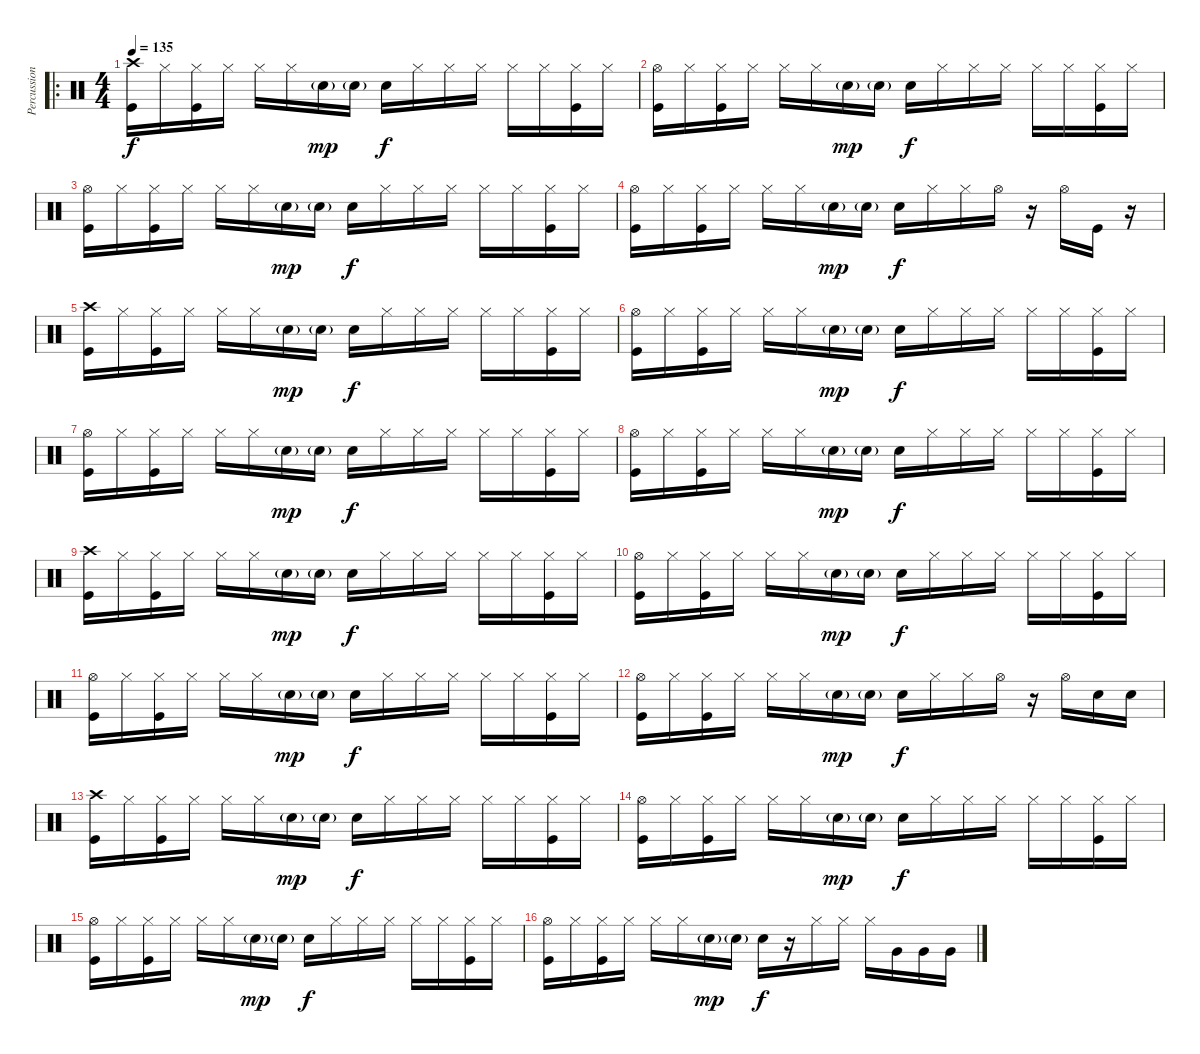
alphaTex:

\track ("Percussion" "Percussion") {instrument percussion}
\staff {score}
\articulation defaults
\ro
\ts (4 4)
\tempo 135
\clef neutral
\ks c
("Kick (hit)" "Crash high (hit)").16{dy f} "Hi-Hat (closed)".16 ("Kick (hit)" "Hi-Hat (closed)").16 "Hi-Hat (closed)".16 "Hi-Hat (closed)".16 "Hi-Hat (closed)".16 "Electric Snare (hit)"{g}.16{dy mp} "Electric Snare (hit)"{g}.16 "Electric Snare (hit)".16{dy f} "Hi-Hat (closed)".16 "Hi-Hat (closed)".16 "Hi-Hat (closed)".16 "Hi-Hat (closed)".16 "Hi-Hat (closed)".16 ("Kick (hit)" "Hi-Hat (closed)").16 "Hi-Hat (closed)".16 |
("Kick (hit)" "Hi-Hat (open)").16 "Hi-Hat (closed)".16 ("Kick (hit)" "Hi-Hat (closed)").16 "Hi-Hat (closed)".16 "Hi-Hat (closed)".16 "Hi-Hat (closed)".16 "Electric Snare (hit)"{g}.16{dy mp} "Electric Snare (hit)"{g}.16 "Electric Snare (hit)".16{dy f} "Hi-Hat (closed)".16 "Hi-Hat (closed)".16 "Hi-Hat (closed)".16 "Hi-Hat (closed)".16 "Hi-Hat (closed)".16 ("Kick (hit)" "Hi-Hat (closed)").16 "Hi-Hat (closed)".16 |
("Kick (hit)" "Hi-Hat (open)").16 "Hi-Hat (closed)".16 ("Kick (hit)" "Hi-Hat (closed)").16 "Hi-Hat (closed)".16 "Hi-Hat (closed)".16 "Hi-Hat (closed)".16 "Electric Snare (hit)"{g}.16{dy mp} "Electric Snare (hit)"{g}.16 "Electric Snare (hit)".16{dy f} "Hi-Hat (closed)".16 "Hi-Hat (closed)".16 "Hi-Hat (closed)".16 "Hi-Hat (closed)".16 "Hi-Hat (closed)".16 ("Kick (hit)" "Hi-Hat (closed)").16 "Hi-Hat (closed)".16 |
("Kick (hit)" "Hi-Hat (open)").16 "Hi-Hat (closed)".16 ("Kick (hit)" "Hi-Hat (closed)").16 "Hi-Hat (closed)".16 "Hi-Hat (closed)".16 "Hi-Hat (closed)".16 "Electric Snare (hit)"{g}.16{dy mp} "Electric Snare (hit)"{g}.16 "Electric Snare (hit)".16{dy f} "Hi-Hat (closed)".16 "Hi-Hat (closed)".16 "Hi-Hat (open)".16 r.16 "Hi-Hat (open)".16 "Kick (hit)".16 r.16 |
("Kick (hit)" "Crash high (hit)").16 "Hi-Hat (closed)".16 ("Kick (hit)" "Hi-Hat (closed)").16 "Hi-Hat (closed)".16 "Hi-Hat (closed)".16 "Hi-Hat (closed)".16 "Electric Snare (hit)"{g}.16{dy mp} "Electric Snare (hit)"{g}.16 "Electric Snare (hit)".16{dy f} "Hi-Hat (closed)".16 "Hi-Hat (closed)".16 "Hi-Hat (closed)".16 "Hi-Hat (closed)".16 "Hi-Hat (closed)".16 ("Kick (hit)" "Hi-Hat (closed)").16 "Hi-Hat (closed)".16 |
("Kick (hit)" "Hi-Hat (open)").16 "Hi-Hat (closed)".16 ("Kick (hit)" "Hi-Hat (closed)").16 "Hi-Hat (closed)".16 "Hi-Hat (closed)".16 "Hi-Hat (closed)".16 "Electric Snare (hit)"{g}.16{dy mp} "Electric Snare (hit)"{g}.16 "Electric Snare (hit)".16{dy f} "Hi-Hat (closed)".16 "Hi-Hat (closed)".16 "Hi-Hat (closed)".16 "Hi-Hat (closed)".16 "Hi-Hat (closed)".16 ("Kick (hit)" "Hi-Hat (closed)").16 "Hi-Hat (closed)".16 |
("Kick (hit)" "Hi-Hat (open)").16 "Hi-Hat (closed)".16 ("Kick (hit)" "Hi-Hat (closed)").16 "Hi-Hat (closed)".16 "Hi-Hat (closed)".16 "Hi-Hat (closed)".16 "Electric Snare (hit)"{g}.16{dy mp} "Electric Snare (hit)"{g}.16 "Electric Snare (hit)".16{dy f} "Hi-Hat (closed)".16 "Hi-Hat (closed)".16 "Hi-Hat (closed)".16 "Hi-Hat (closed)".16 "Hi-Hat (closed)".16 ("Kick (hit)" "Hi-Hat (closed)").16 "Hi-Hat (closed)".16 |
("Kick (hit)" "Hi-Hat (open)").16 "Hi-Hat (closed)".16 ("Kick (hit)" "Hi-Hat (closed)").16 "Hi-Hat (closed)".16 "Hi-Hat (closed)".16 "Hi-Hat (closed)".16 "Electric Snare (hit)"{g}.16{dy mp} "Electric Snare (hit)"{g}.16 "Electric Snare (hit)".16{dy f} "Hi-Hat (closed)".16 "Hi-Hat (closed)".16 "Hi-Hat (closed)".16 "Hi-Hat (closed)".16 "Hi-Hat (closed)".16 ("Kick (hit)" "Hi-Hat (closed)").16 "Hi-Hat (closed)".16 |
("Kick (hit)" "Crash high (hit)").16 "Hi-Hat (closed)".16 ("Kick (hit)" "Hi-Hat (closed)").16 "Hi-Hat (closed)".16 "Hi-Hat (closed)".16 "Hi-Hat (closed)".16 "Electric Snare (hit)"{g}.16{dy mp} "Electric Snare (hit)"{g}.16 "Electric Snare (hit)".16{dy f} "Hi-Hat (closed)".16 "Hi-Hat (closed)".16 "Hi-Hat (closed)".16 "Hi-Hat (closed)".16 "Hi-Hat (closed)".16 ("Kick (hit)" "Hi-Hat (closed)").16 "Hi-Hat (closed)".16 |
("Kick (hit)" "Hi-Hat (open)").16 "Hi-Hat (closed)".16 ("Kick (hit)" "Hi-Hat (closed)").16 "Hi-Hat (closed)".16 "Hi-Hat (closed)".16 "Hi-Hat (closed)".16 "Electric Snare (hit)"{g}.16{dy mp} "Electric Snare (hit)"{g}.16 "Electric Snare (hit)".16{dy f} "Hi-Hat (closed)".16 "Hi-Hat (closed)".16 "Hi-Hat (closed)".16 "Hi-Hat (closed)".16 "Hi-Hat (closed)".16 ("Kick (hit)" "Hi-Hat (closed)").16 "Hi-Hat (closed)".16 |
("Kick (hit)" "Hi-Hat (open)").16 "Hi-Hat (closed)".16 ("Kick (hit)" "Hi-Hat (closed)").16 "Hi-Hat (closed)".16 "Hi-Hat (closed)".16 "Hi-Hat (closed)".16 "Electric Snare (hit)"{g}.16{dy mp} "Electric Snare (hit)"{g}.16 "Electric Snare (hit)".16{dy f} "Hi-Hat (closed)".16 "Hi-Hat (closed)".16 "Hi-Hat (closed)".16 "Hi-Hat (closed)".16 "Hi-Hat (closed)".16 ("Kick (hit)" "Hi-Hat (closed)").16 "Hi-Hat (closed)".16 |
("Kick (hit)" "Hi-Hat (open)").16 "Hi-Hat (closed)".16 ("Kick (hit)" "Hi-Hat (closed)").16 "Hi-Hat (closed)".16 "Hi-Hat (closed)".16 "Hi-Hat (closed)".16 "Electric Snare (hit)"{g}.16{dy mp} "Electric Snare (hit)"{g}.16 "Electric Snare (hit)".16{dy f} "Hi-Hat (closed)".16 "Hi-Hat (closed)".16 "Hi-Hat (open)".16 r.16 "Hi-Hat (open)".16 "Electric Snare (hit)".16 "Electric Snare (hit)".16 |
("Kick (hit)" "Crash high (hit)").16 "Hi-Hat (closed)".16 ("Kick (hit)" "Hi-Hat (closed)").16 "Hi-Hat (closed)".16 "Hi-Hat (closed)".16 "Hi-Hat (closed)".16 "Electric Snare (hit)"{g}.16{dy mp} "Electric Snare (hit)"{g}.16 "Electric Snare (hit)".16{dy f} "Hi-Hat (closed)".16 "Hi-Hat (closed)".16 "Hi-Hat (closed)".16 "Hi-Hat (closed)".16 "Hi-Hat (closed)".16 ("Kick (hit)" "Hi-Hat (closed)").16 "Hi-Hat (closed)".16 |
("Kick (hit)" "Hi-Hat (open)").16 "Hi-Hat (closed)".16 ("Kick (hit)" "Hi-Hat (closed)").16 "Hi-Hat (closed)".16 "Hi-Hat (closed)".16 "Hi-Hat (closed)".16 "Electric Snare (hit)"{g}.16{dy mp} "Electric Snare (hit)"{g}.16 "Electric Snare (hit)".16{dy f} "Hi-Hat (closed)".16 "Hi-Hat (closed)".16 "Hi-Hat (closed)".16 "Hi-Hat (closed)".16 "Hi-Hat (closed)".16 ("Kick (hit)" "Hi-Hat (closed)").16 "Hi-Hat (closed)".16 |
("Kick (hit)" "Hi-Hat (open)").16 "Hi-Hat (closed)".16 ("Kick (hit)" "Hi-Hat (closed)").16 "Hi-Hat (closed)".16 "Hi-Hat (closed)".16 "Hi-Hat (closed)".16 "Electric Snare (hit)"{g}.16{dy mp} "Electric Snare (hit)"{g}.16 "Electric Snare (hit)".16{dy f} "Hi-Hat (closed)".16 "Hi-Hat (closed)".16 "Hi-Hat (closed)".16 "Hi-Hat (closed)".16 "Hi-Hat (closed)".16 ("Kick (hit)" "Hi-Hat (closed)").16 "Hi-Hat (closed)".16 |
("Kick (hit)" "Hi-Hat (open)").16 "Hi-Hat (closed)".16 ("Kick (hit)" "Hi-Hat (closed)").16 "Hi-Hat (closed)".16 "Hi-Hat (closed)".16 "Hi-Hat (closed)".16 "Electric Snare (hit)"{g}.16{dy mp} "Electric Snare (hit)"{g}.16 "Electric Snare (hit)".16{dy f} r.16 "Hi-Hat (closed)".16 "Hi-Hat (closed)".16 "Hi-Hat (closed)".16 "Very Low Tom (hit)".16 "Very Low Tom (hit)".16 "Very Low Tom (hit)".16
